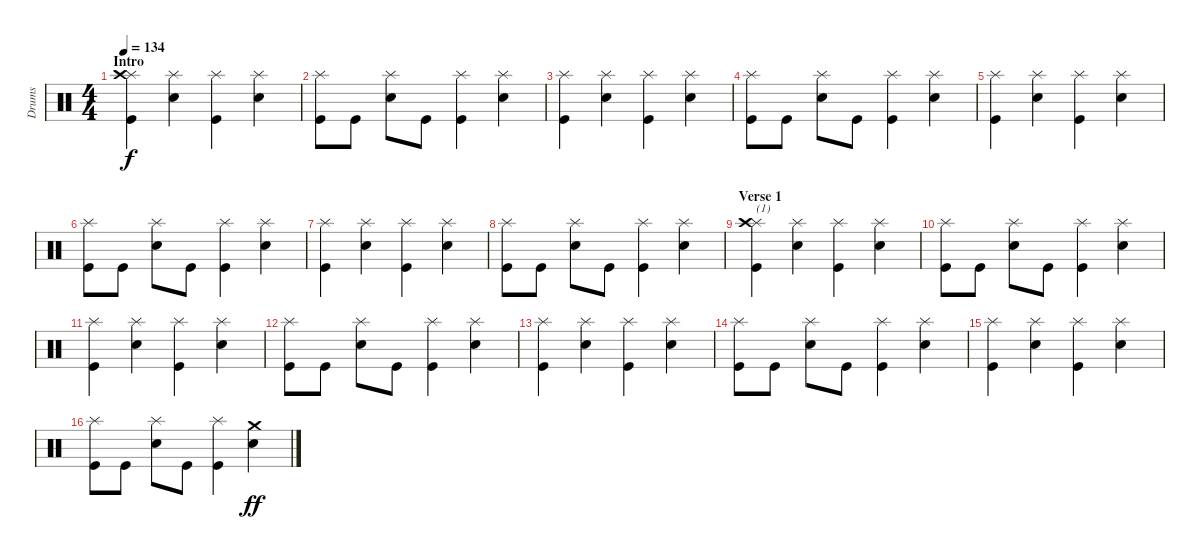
\track ("Drums" "Drums") {instrument percussion}
\staff {score}
\articulation defaults
\ts (4 4)
\section ("" "Intro")
\tempo 134
\clef neutral
\ks c
("Splash (hit)" "Crash high (hit)" "Kick (hit)").4{dy f} ("Splash (hit)" "Snare (hit) 2").4 ("Splash (hit)" "Kick (hit)").4 ("Splash (hit)" "Snare (hit) 2").4 |
("Splash (hit)" "Kick (hit)").8 "Kick (hit)".8 ("Splash (hit)" "Snare (hit) 2").8 "Kick (hit)".8 ("Splash (hit)" "Kick (hit)").4 ("Splash (hit)" "Snare (hit) 2").4 |
("Splash (hit)" "Kick (hit)").4 ("Splash (hit)" "Snare (hit) 2").4 ("Splash (hit)" "Kick (hit)").4 ("Splash (hit)" "Snare (hit) 2").4 |
("Splash (hit)" "Kick (hit)").8 "Kick (hit)".8 ("Splash (hit)" "Snare (hit) 2").8 "Kick (hit)".8 ("Splash (hit)" "Kick (hit)").4 ("Splash (hit)" "Snare (hit) 2").4 |
("Splash (hit)" "Kick (hit)").4 ("Splash (hit)" "Snare (hit) 2").4 ("Splash (hit)" "Kick (hit)").4 ("Splash (hit)" "Snare (hit) 2").4 |
("Splash (hit)" "Kick (hit)").8 "Kick (hit)".8 ("Splash (hit)" "Snare (hit) 2").8 "Kick (hit)".8 ("Splash (hit)" "Kick (hit)").4 ("Splash (hit)" "Snare (hit) 2").4 |
("Splash (hit)" "Kick (hit)").4 ("Splash (hit)" "Snare (hit) 2").4 ("Splash (hit)" "Kick (hit)").4 ("Splash (hit)" "Snare (hit) 2").4 |
("Splash (hit)" "Kick (hit)").8 "Kick (hit)".8 ("Splash (hit)" "Snare (hit) 2").8 "Kick (hit)".8 ("Splash (hit)" "Kick (hit)").4 ("Splash (hit)" "Snare (hit) 2").4 |
\section ("" "Verse 1")
("Splash (hit)" "Crash high (hit)" "Kick (hit)").4{txt "(1)"} ("Splash (hit)" "Snare (hit) 2").4 ("Splash (hit)" "Kick (hit)").4 ("Splash (hit)" "Snare (hit) 2").4 |
("Splash (hit)" "Kick (hit)").8 "Kick (hit)".8 ("Splash (hit)" "Snare (hit) 2").8 "Kick (hit)".8 ("Splash (hit)" "Kick (hit)").4 ("Splash (hit)" "Snare (hit) 2").4 |
("Splash (hit)" "Kick (hit)").4 ("Splash (hit)" "Snare (hit) 2").4 ("Splash (hit)" "Kick (hit)").4 ("Splash (hit)" "Snare (hit) 2").4 |
("Splash (hit)" "Kick (hit)").8 "Kick (hit)".8 ("Splash (hit)" "Snare (hit) 2").8 "Kick (hit)".8 ("Splash (hit)" "Kick (hit)").4 ("Splash (hit)" "Snare (hit) 2").4 |
("Splash (hit)" "Kick (hit)").4 ("Splash (hit)" "Snare (hit) 2").4 ("Splash (hit)" "Kick (hit)").4 ("Splash (hit)" "Snare (hit) 2").4 |
("Splash (hit)" "Kick (hit)").8 "Kick (hit)".8 ("Splash (hit)" "Snare (hit) 2").8 "Kick (hit)".8 ("Splash (hit)" "Kick (hit)").4 ("Splash (hit)" "Snare (hit) 2").4 |
("Splash (hit)" "Kick (hit)").4 ("Splash (hit)" "Snare (hit) 2").4 ("Splash (hit)" "Kick (hit)").4 ("Splash (hit)" "Snare (hit) 2").4 |
("Splash (hit)" "Kick (hit)").8 "Kick (hit)".8 ("Splash (hit)" "Snare (hit) 2").8 "Kick (hit)".8 ("Splash (hit)" "Kick (hit)").4 ("Crash medium (hit)" "Snare (hit) 2").4{dy ff}
